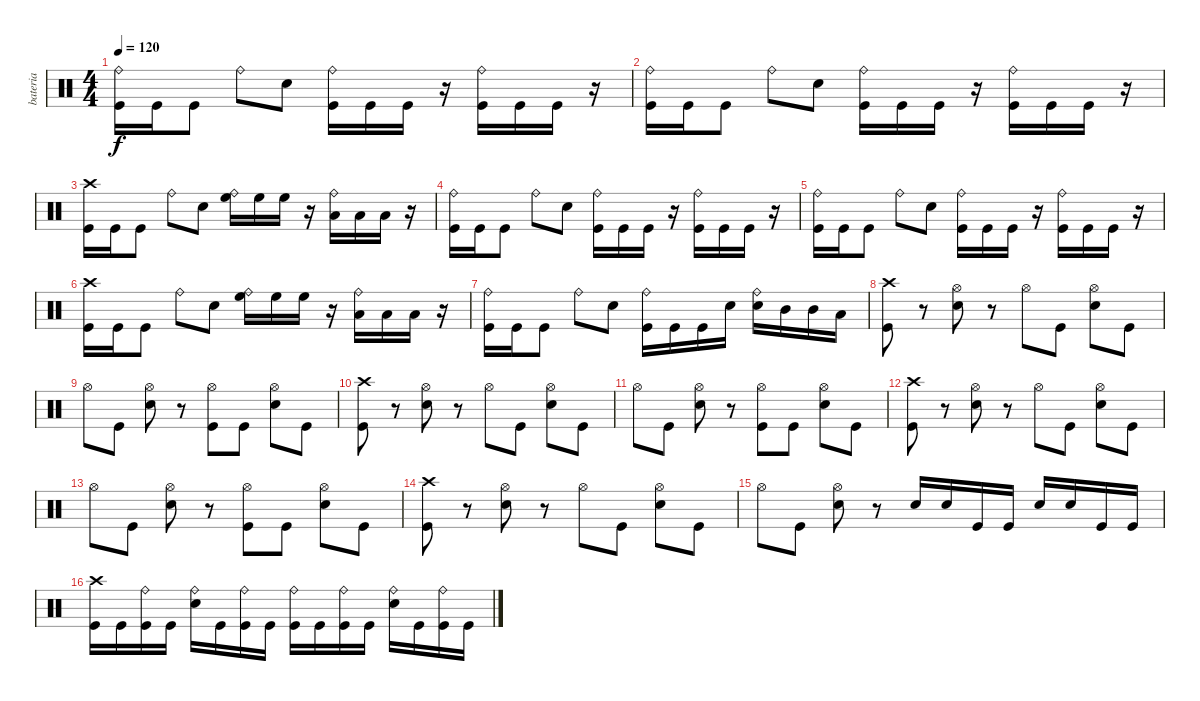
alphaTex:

\track ("bateria" "bateria") {instrument percussion}
\staff {score}
\articulation defaults
\ts (4 4)
\tempo 120
\clef neutral
\ks c
("Ride (bell)" "Kick (hit)").16{dy f} "Kick (hit)".16 "Kick (hit)".8 "Ride (bell)".8 "Snare (hit) 2".8 ("Ride (bell)" "Kick (hit)").16 "Kick (hit)".16 "Kick (hit)".16 r.16 ("Ride (bell)" "Kick (hit)").16 "Kick (hit)".16 "Kick (hit)".16 r.16 |
("Ride (bell)" "Kick (hit)").16 "Kick (hit)".16 "Kick (hit)".8 "Ride (bell)".8 "Snare (hit) 2".8 ("Ride (bell)" "Kick (hit)").16 "Kick (hit)".16 "Kick (hit)".16 r.16 ("Ride (bell)" "Kick (hit)").16 "Kick (hit)".16 "Kick (hit)".16 r.16 |
("Crash high (hit)" "Kick (hit)").16 "Kick (hit)".16 "Kick (hit)".8 "Ride (bell)".8 "Snare (hit) 2".8 ("Ride (bell)" "High Floor Tom (hit)").16 "High Floor Tom (hit)".16 "High Floor Tom (hit)".16 r.16 ("Ride (bell)" "Low Tom (hit)").16 "Low Tom (hit)".16 "Low Tom (hit)".16 r.16 |
("Ride (bell)" "Kick (hit)").16 "Kick (hit)".16 "Kick (hit)".8 "Ride (bell)".8 "Snare (hit) 2".8 ("Ride (bell)" "Kick (hit)").16 "Kick (hit)".16 "Kick (hit)".16 r.16 ("Ride (bell)" "Kick (hit)").16 "Kick (hit)".16 "Kick (hit)".16 r.16 |
("Ride (bell)" "Kick (hit)").16 "Kick (hit)".16 "Kick (hit)".8 "Ride (bell)".8 "Snare (hit) 2".8 ("Ride (bell)" "Kick (hit)").16 "Kick (hit)".16 "Kick (hit)".16 r.16 ("Ride (bell)" "Kick (hit)").16 "Kick (hit)".16 "Kick (hit)".16 r.16 |
("Crash high (hit)" "Kick (hit)").16 "Kick (hit)".16 "Kick (hit)".8 "Ride (bell)".8 "Snare (hit) 2".8 ("Ride (bell)" "High Floor Tom (hit)").16 "High Floor Tom (hit)".16 "High Floor Tom (hit)".16 r.16 ("Ride (bell)" "Low Tom (hit)").16 "Low Tom (hit)".16 "Low Tom (hit)".16 r.16 |
("Ride (bell)" "Kick (hit)").16 "Kick (hit)".16 "Kick (hit)".8 "Ride (bell)".8 "Snare (hit) 2".8 ("Ride (bell)" "Kick (hit)").16 "Kick (hit)".16 "Kick (hit)".16 "Electric Snare (hit)".16 ("Ride (bell)" "Electric Snare (hit)").16 "Mid Tom (hit)".16 "Mid Tom (hit)".16 "Low Tom (hit)".16 |
("Crash high (hit)" "Kick (hit)").8 r.8 ("Hi-Hat (open)" "Electric Snare (hit)").8 r.8 "Hi-Hat (open)".8 "Kick (hit)".8 ("Hi-Hat (open)" "Snare (hit) 2").8 "Kick (hit)".8 |
"Hi-Hat (open)".8 "Kick (hit)".8 ("Hi-Hat (open)" "Snare (hit) 2").8 r.8 ("Hi-Hat (open)" "Kick (hit)").8 "Kick (hit)".8 ("Hi-Hat (open)" "Snare (hit) 2").8 "Kick (hit)".8 |
("Crash high (hit)" "Kick (hit)").8 r.8 ("Hi-Hat (open)" "Electric Snare (hit)").8 r.8 "Hi-Hat (open)".8 "Kick (hit)".8 ("Hi-Hat (open)" "Snare (hit) 2").8 "Kick (hit)".8 |
"Hi-Hat (open)".8 "Kick (hit)".8 ("Hi-Hat (open)" "Snare (hit) 2").8 r.8 ("Hi-Hat (open)" "Kick (hit)").8 "Kick (hit)".8 ("Hi-Hat (open)" "Snare (hit) 2").8 "Kick (hit)".8 |
("Crash high (hit)" "Kick (hit)").8 r.8 ("Hi-Hat (open)" "Electric Snare (hit)").8 r.8 "Hi-Hat (open)".8 "Kick (hit)".8 ("Hi-Hat (open)" "Snare (hit) 2").8 "Kick (hit)".8 |
"Hi-Hat (open)".8 "Kick (hit)".8 ("Hi-Hat (open)" "Snare (hit) 2").8 r.8 ("Hi-Hat (open)" "Kick (hit)").8 "Kick (hit)".8 ("Hi-Hat (open)" "Snare (hit) 2").8 "Kick (hit)".8 |
("Crash high (hit)" "Kick (hit)").8 r.8 ("Hi-Hat (open)" "Electric Snare (hit)").8 r.8 "Hi-Hat (open)".8 "Kick (hit)".8 ("Hi-Hat (open)" "Snare (hit) 2").8 "Kick (hit)".8 |
"Hi-Hat (open)".8 "Kick (hit)".8 ("Hi-Hat (open)" "Snare (hit) 2").8 r.8 "Snare (hit) 2".16 "Snare (hit) 2".16 "Kick (hit)".16 "Kick (hit)".16 "Snare (hit) 2".16 "Snare (hit) 2".16 "Kick (hit)".16 "Kick (hit)".16 |
("Crash high (hit)" "Kick (hit)").16 "Kick (hit)".16 ("Ride (bell)" "Kick (hit)").16 "Kick (hit)".16 ("Ride (bell)" "Snare (hit) 2").16 "Kick (hit)".16 ("Ride (bell)" "Kick (hit)").16 "Kick (hit)".16 ("Ride (bell)" "Kick (hit)").16 "Kick (hit)".16 ("Ride (bell)" "Kick (hit)").16 "Kick (hit)".16 ("Ride (bell)" "Snare (hit) 2").16 "Kick (hit)".16 ("Ride (bell)" "Kick (hit)").16 "Kick (hit)".16
